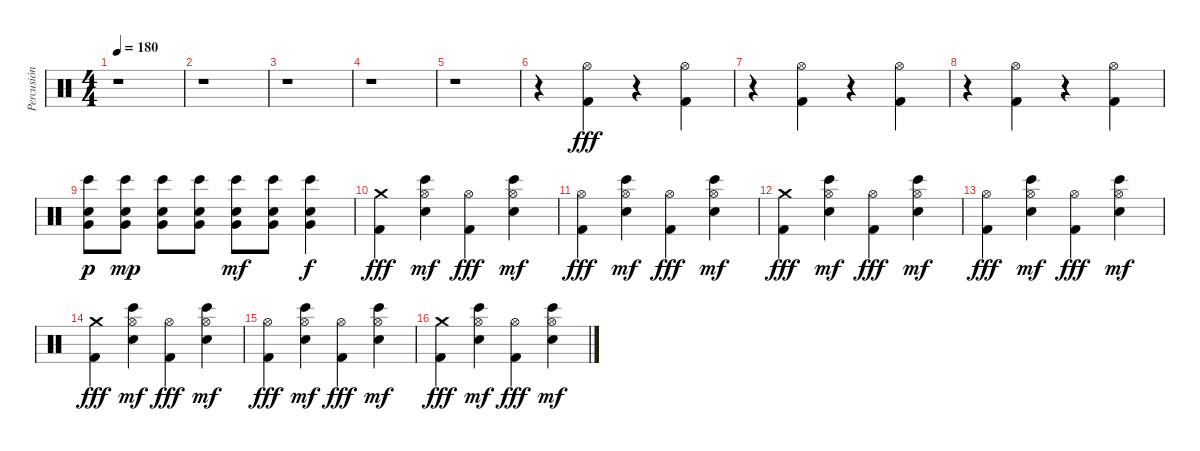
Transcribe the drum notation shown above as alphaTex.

\track ("Percusión" "Percusión") {instrument percussion}
\staff {score}
\articulation defaults
\ts (4 4)
\tempo 180
\clef neutral
\ks c
r.1{dy fff} |
r.1 |
r.1 |
r.1 |
r.1 |
r.4 ("Hi-Hat (open)" "Kick (hit) 2").4 r.4 ("Hi-Hat (open)" "Kick (hit) 2").4 |
r.4 ("Hi-Hat (open)" "Kick (hit) 2").4 r.4 ("Hi-Hat (open)" "Kick (hit) 2").4 |
r.4 ("Hi-Hat (open)" "Kick (hit) 2").4 r.4 ("Hi-Hat (open)" "Kick (hit) 2").4 |
("Bongo High (hit)" "Snare (hit) 2" "Very Low Tom (hit)").8{dy p} ("Bongo High (hit)" "Snare (hit) 2" "Very Low Tom (hit)").8{dy mp} ("Bongo High (hit)" "Snare (hit) 2" "Very Low Tom (hit)").8 ("Bongo High (hit)" "Snare (hit) 2" "Very Low Tom (hit)").8 ("Bongo High (hit)" "Snare (hit) 2" "Very Low Tom (hit)").8{dy mf} ("Bongo High (hit)" "Snare (hit) 2" "Very Low Tom (hit)").8 ("Bongo High (hit)" "Snare (hit) 2" "Very Low Tom (hit)").4{dy f} |
("Crash medium (hit)" "Kick (hit) 2").4{dy fff} ("Hi-Hat (open)" "Bongo High (hit)" "Snare (hit) 2").4{dy mf} ("Hi-Hat (open)" "Kick (hit) 2").4{dy fff} ("Hi-Hat (open)" "Bongo High (hit)" "Snare (hit) 2").4{dy mf} |
("Hi-Hat (open)" "Kick (hit) 2").4{dy fff} ("Hi-Hat (open)" "Bongo High (hit)" "Snare (hit) 2").4{dy mf} ("Hi-Hat (open)" "Kick (hit) 2").4{dy fff} ("Hi-Hat (open)" "Bongo High (hit)" "Snare (hit) 2").4{dy mf} |
("Crash medium (hit)" "Kick (hit) 2").4{dy fff} ("Hi-Hat (open)" "Bongo High (hit)" "Snare (hit) 2").4{dy mf} ("Hi-Hat (open)" "Kick (hit) 2").4{dy fff} ("Hi-Hat (open)" "Bongo High (hit)" "Snare (hit) 2").4{dy mf} |
("Hi-Hat (open)" "Kick (hit) 2").4{dy fff} ("Hi-Hat (open)" "Bongo High (hit)" "Snare (hit) 2").4{dy mf} ("Hi-Hat (open)" "Kick (hit) 2").4{dy fff} ("Hi-Hat (open)" "Bongo High (hit)" "Snare (hit) 2").4{dy mf} |
("Crash medium (hit)" "Kick (hit) 2").4{dy fff} ("Hi-Hat (open)" "Bongo High (hit)" "Snare (hit) 2").4{dy mf} ("Hi-Hat (open)" "Kick (hit) 2").4{dy fff} ("Hi-Hat (open)" "Bongo High (hit)" "Snare (hit) 2").4{dy mf} |
("Hi-Hat (open)" "Kick (hit) 2").4{dy fff} ("Hi-Hat (open)" "Bongo High (hit)" "Snare (hit) 2").4{dy mf} ("Hi-Hat (open)" "Kick (hit) 2").4{dy fff} ("Hi-Hat (open)" "Bongo High (hit)" "Snare (hit) 2").4{dy mf} |
("Crash medium (hit)" "Kick (hit) 2").4{dy fff} ("Hi-Hat (open)" "Bongo High (hit)" "Snare (hit) 2").4{dy mf} ("Hi-Hat (open)" "Kick (hit) 2").4{dy fff} ("Hi-Hat (open)" "Bongo High (hit)" "Snare (hit) 2").4{dy mf}
